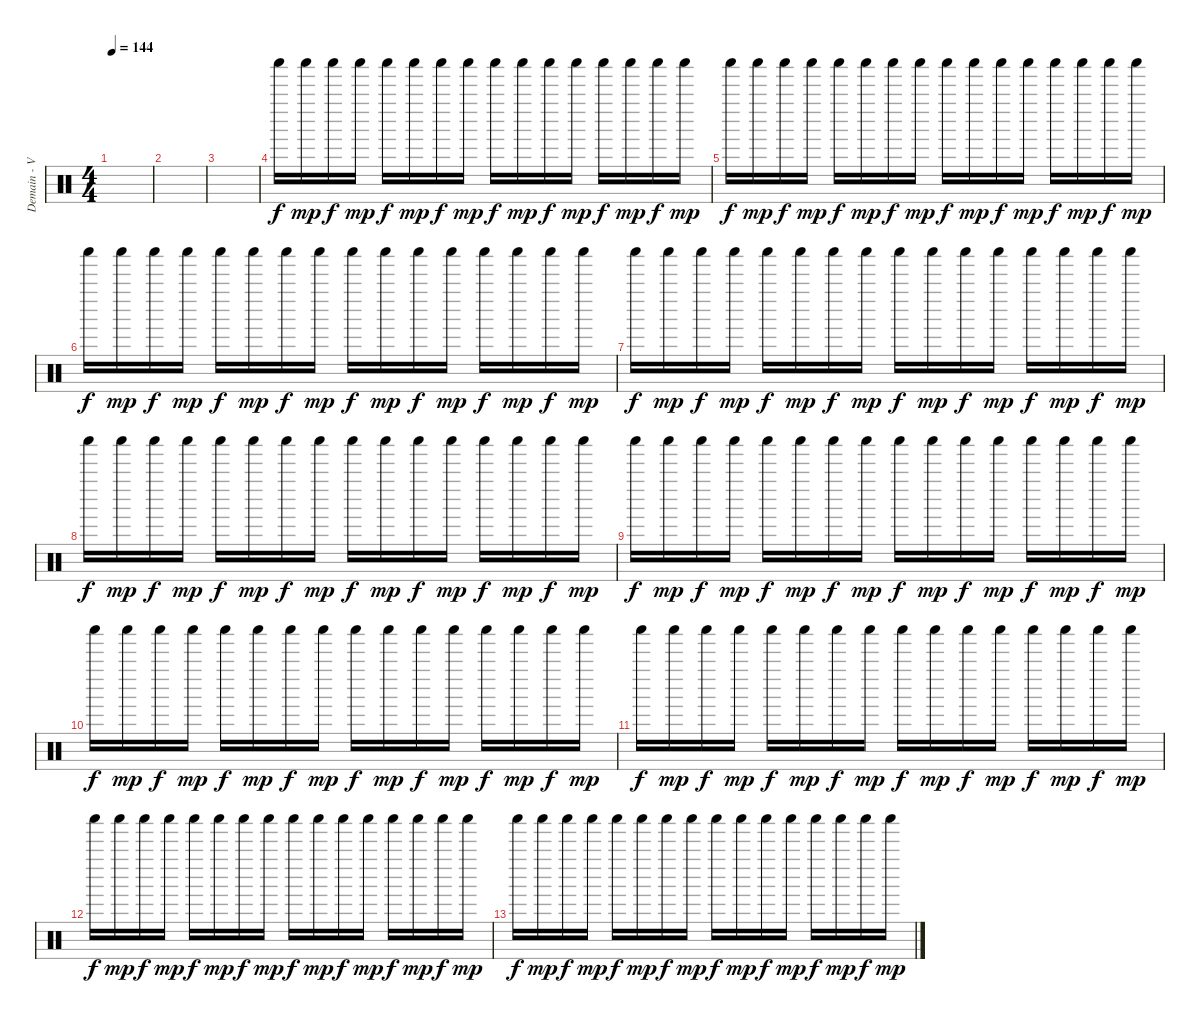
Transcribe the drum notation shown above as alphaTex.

\track ("Demain - Various Perc." "Demain - V") {instrument percussion}
\staff {score}
\articulation defaults
\ts (4 4)
\tempo 144
\clef neutral
\ks c
|
|
|
"Shaker (hit)".16{dy f} "Shaker (hit)".16{dy mp} "Shaker (hit)".16{dy f} "Shaker (hit)".16{dy mp} "Shaker (hit)".16{dy f} "Shaker (hit)".16{dy mp} "Shaker (hit)".16{dy f} "Shaker (hit)".16{dy mp} "Shaker (hit)".16{dy f} "Shaker (hit)".16{dy mp} "Shaker (hit)".16{dy f} "Shaker (hit)".16{dy mp} "Shaker (hit)".16{dy f} "Shaker (hit)".16{dy mp} "Shaker (hit)".16{dy f} "Shaker (hit)".16{dy mp} |
"Shaker (hit)".16{dy f} "Shaker (hit)".16{dy mp} "Shaker (hit)".16{dy f} "Shaker (hit)".16{dy mp} "Shaker (hit)".16{dy f} "Shaker (hit)".16{dy mp} "Shaker (hit)".16{dy f} "Shaker (hit)".16{dy mp} "Shaker (hit)".16{dy f} "Shaker (hit)".16{dy mp} "Shaker (hit)".16{dy f} "Shaker (hit)".16{dy mp} "Shaker (hit)".16{dy f} "Shaker (hit)".16{dy mp} "Shaker (hit)".16{dy f} "Shaker (hit)".16{dy mp} |
"Shaker (hit)".16{dy f} "Shaker (hit)".16{dy mp} "Shaker (hit)".16{dy f} "Shaker (hit)".16{dy mp} "Shaker (hit)".16{dy f} "Shaker (hit)".16{dy mp} "Shaker (hit)".16{dy f} "Shaker (hit)".16{dy mp} "Shaker (hit)".16{dy f} "Shaker (hit)".16{dy mp} "Shaker (hit)".16{dy f} "Shaker (hit)".16{dy mp} "Shaker (hit)".16{dy f} "Shaker (hit)".16{dy mp} "Shaker (hit)".16{dy f} "Shaker (hit)".16{dy mp} |
"Shaker (hit)".16{dy f} "Shaker (hit)".16{dy mp} "Shaker (hit)".16{dy f} "Shaker (hit)".16{dy mp} "Shaker (hit)".16{dy f} "Shaker (hit)".16{dy mp} "Shaker (hit)".16{dy f} "Shaker (hit)".16{dy mp} "Shaker (hit)".16{dy f} "Shaker (hit)".16{dy mp} "Shaker (hit)".16{dy f} "Shaker (hit)".16{dy mp} "Shaker (hit)".16{dy f} "Shaker (hit)".16{dy mp} "Shaker (hit)".16{dy f} "Shaker (hit)".16{dy mp} |
"Shaker (hit)".16{dy f} "Shaker (hit)".16{dy mp} "Shaker (hit)".16{dy f} "Shaker (hit)".16{dy mp} "Shaker (hit)".16{dy f} "Shaker (hit)".16{dy mp} "Shaker (hit)".16{dy f} "Shaker (hit)".16{dy mp} "Shaker (hit)".16{dy f} "Shaker (hit)".16{dy mp} "Shaker (hit)".16{dy f} "Shaker (hit)".16{dy mp} "Shaker (hit)".16{dy f} "Shaker (hit)".16{dy mp} "Shaker (hit)".16{dy f} "Shaker (hit)".16{dy mp} |
"Shaker (hit)".16{dy f} "Shaker (hit)".16{dy mp} "Shaker (hit)".16{dy f} "Shaker (hit)".16{dy mp} "Shaker (hit)".16{dy f} "Shaker (hit)".16{dy mp} "Shaker (hit)".16{dy f} "Shaker (hit)".16{dy mp} "Shaker (hit)".16{dy f} "Shaker (hit)".16{dy mp} "Shaker (hit)".16{dy f} "Shaker (hit)".16{dy mp} "Shaker (hit)".16{dy f} "Shaker (hit)".16{dy mp} "Shaker (hit)".16{dy f} "Shaker (hit)".16{dy mp} |
"Shaker (hit)".16{dy f} "Shaker (hit)".16{dy mp} "Shaker (hit)".16{dy f} "Shaker (hit)".16{dy mp} "Shaker (hit)".16{dy f} "Shaker (hit)".16{dy mp} "Shaker (hit)".16{dy f} "Shaker (hit)".16{dy mp} "Shaker (hit)".16{dy f} "Shaker (hit)".16{dy mp} "Shaker (hit)".16{dy f} "Shaker (hit)".16{dy mp} "Shaker (hit)".16{dy f} "Shaker (hit)".16{dy mp} "Shaker (hit)".16{dy f} "Shaker (hit)".16{dy mp} |
"Shaker (hit)".16{dy f} "Shaker (hit)".16{dy mp} "Shaker (hit)".16{dy f} "Shaker (hit)".16{dy mp} "Shaker (hit)".16{dy f} "Shaker (hit)".16{dy mp} "Shaker (hit)".16{dy f} "Shaker (hit)".16{dy mp} "Shaker (hit)".16{dy f} "Shaker (hit)".16{dy mp} "Shaker (hit)".16{dy f} "Shaker (hit)".16{dy mp} "Shaker (hit)".16{dy f} "Shaker (hit)".16{dy mp} "Shaker (hit)".16{dy f} "Shaker (hit)".16{dy mp} |
"Shaker (hit)".16{dy f} "Shaker (hit)".16{dy mp} "Shaker (hit)".16{dy f} "Shaker (hit)".16{dy mp} "Shaker (hit)".16{dy f} "Shaker (hit)".16{dy mp} "Shaker (hit)".16{dy f} "Shaker (hit)".16{dy mp} "Shaker (hit)".16{dy f} "Shaker (hit)".16{dy mp} "Shaker (hit)".16{dy f} "Shaker (hit)".16{dy mp} "Shaker (hit)".16{dy f} "Shaker (hit)".16{dy mp} "Shaker (hit)".16{dy f} "Shaker (hit)".16{dy mp} |
"Shaker (hit)".16{dy f} "Shaker (hit)".16{dy mp} "Shaker (hit)".16{dy f} "Shaker (hit)".16{dy mp} "Shaker (hit)".16{dy f} "Shaker (hit)".16{dy mp} "Shaker (hit)".16{dy f} "Shaker (hit)".16{dy mp} "Shaker (hit)".16{dy f} "Shaker (hit)".16{dy mp} "Shaker (hit)".16{dy f} "Shaker (hit)".16{dy mp} "Shaker (hit)".16{dy f} "Shaker (hit)".16{dy mp} "Shaker (hit)".16{dy f} "Shaker (hit)".16{dy mp}
